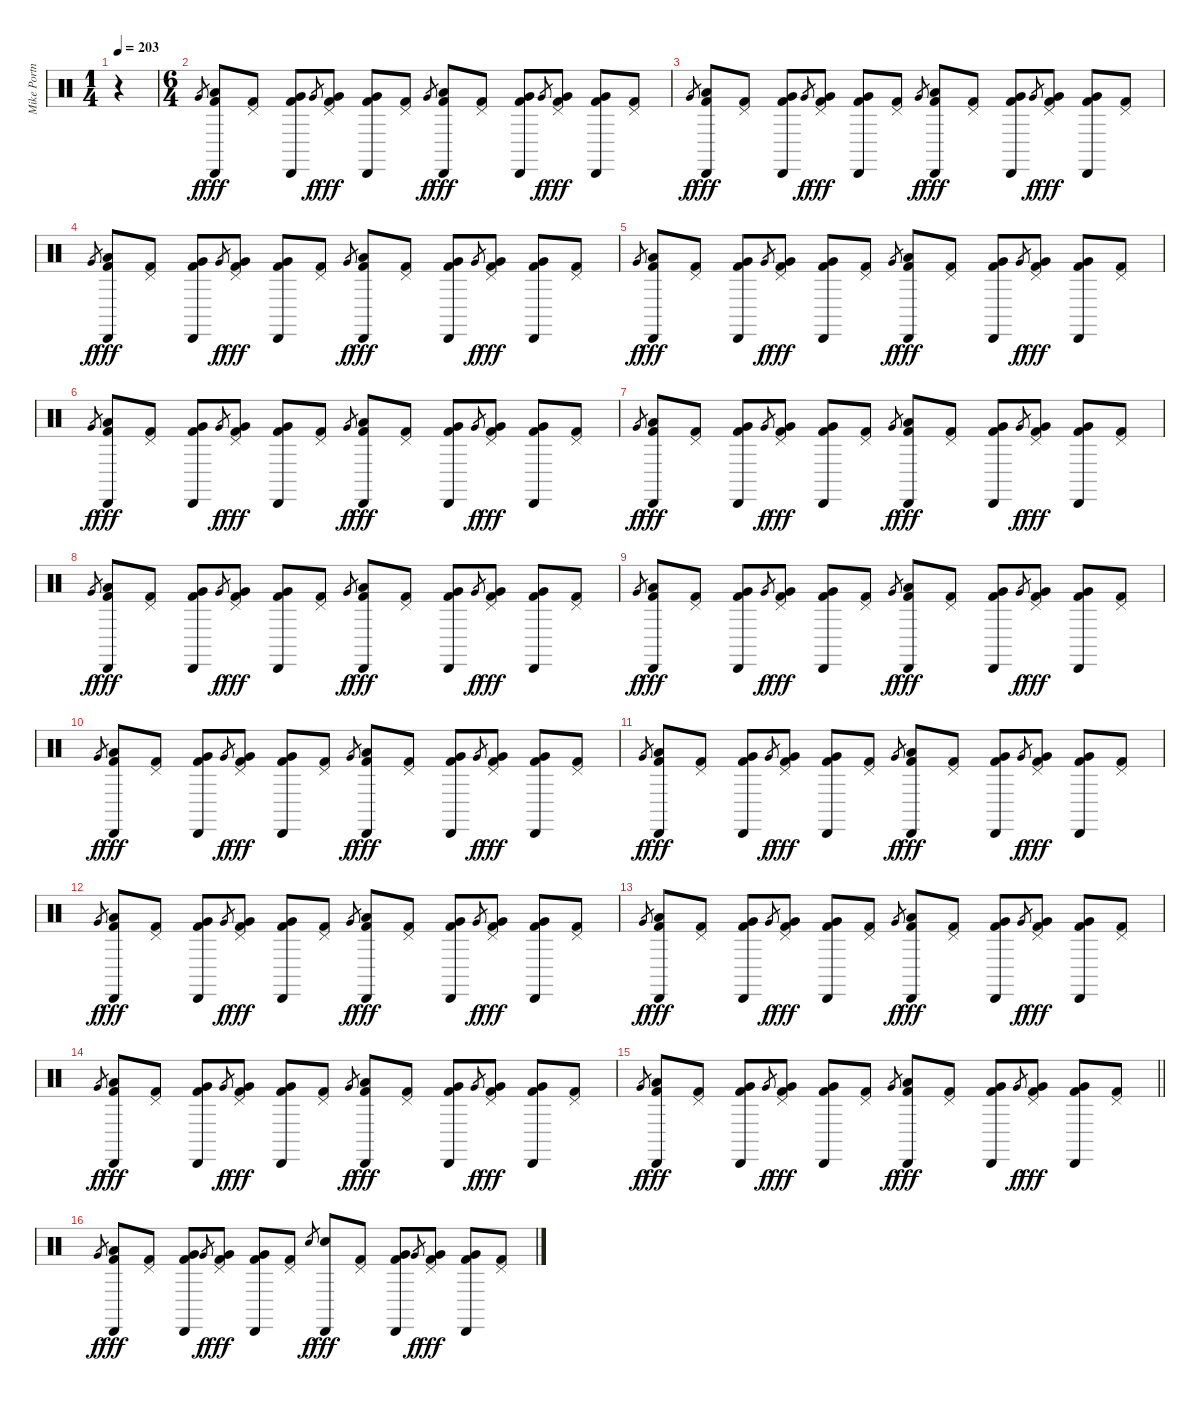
\track ("Mike Portnoy" "Mike Portn") {instrument percussion}
\staff {score}
\articulation defaults
\ts (1 4)
\tempo 203
\clef neutral
\ks c
r.4{dy f volume 0} |
\ts (6 4)
"Very Low Tom (hit)".8{gr} ("Cabasa (hit)" "Low Tom (hit)" "Kick (hit) 2").8{dy fff volume 2} ("Pedal Hi-Hat (hit)" "Kick (hit) 2").8 ("Cabasa (hit)" "Very Low Tom (hit)" "Kick (hit) 2").8 "Very Low Tom (hit)".8{gr dy f} ("Pedal Hi-Hat (hit)" "Very Low Tom (hit)" "Kick (hit) 2").8{dy fff} ("Cabasa (hit)" "Very Low Tom (hit)" "Kick (hit) 2").8 ("Pedal Hi-Hat (hit)" "Kick (hit) 2").8 "Very Low Tom (hit)".8{gr dy f} ("Cabasa (hit)" "Low Floor Tom (hit)" "Kick (hit) 2").8{dy fff} ("Pedal Hi-Hat (hit)" "Kick (hit) 2").8 ("Cabasa (hit)" "Very Low Tom (hit)" "Kick (hit) 2").8 "Very Low Tom (hit)".8{gr dy f} ("Pedal Hi-Hat (hit)" "Very Low Tom (hit)" "Kick (hit) 2").8{dy fff} ("Cabasa (hit)" "Very Low Tom (hit)" "Kick (hit) 2").8 ("Pedal Hi-Hat (hit)" "Kick (hit) 2").8 |
"Very Low Tom (hit)".8{gr dy f} ("Cabasa (hit)" "Low Tom (hit)" "Kick (hit) 2").8{dy fff} ("Pedal Hi-Hat (hit)" "Kick (hit) 2").8 ("Cabasa (hit)" "Very Low Tom (hit)" "Kick (hit) 2").8 "Very Low Tom (hit)".8{gr dy f} ("Pedal Hi-Hat (hit)" "Very Low Tom (hit)" "Kick (hit) 2").8{dy fff} ("Cabasa (hit)" "Very Low Tom (hit)" "Kick (hit) 2").8 ("Pedal Hi-Hat (hit)" "Kick (hit) 2").8 "Very Low Tom (hit)".8{gr dy f} ("Cabasa (hit)" "Low Floor Tom (hit)" "Kick (hit) 2").8{dy fff} ("Pedal Hi-Hat (hit)" "Kick (hit) 2").8 ("Cabasa (hit)" "Very Low Tom (hit)" "Kick (hit) 2").8 "Very Low Tom (hit)".8{gr dy f} ("Pedal Hi-Hat (hit)" "Very Low Tom (hit)" "Kick (hit) 2").8{dy fff} ("Cabasa (hit)" "Very Low Tom (hit)" "Kick (hit) 2").8 ("Pedal Hi-Hat (hit)" "Kick (hit) 2").8 |
"Very Low Tom (hit)".8{gr dy f} ("Cabasa (hit)" "Low Tom (hit)" "Kick (hit) 2").8{dy fff} ("Pedal Hi-Hat (hit)" "Kick (hit) 2").8 ("Cabasa (hit)" "Very Low Tom (hit)" "Kick (hit) 2").8 "Very Low Tom (hit)".8{gr dy f} ("Pedal Hi-Hat (hit)" "Very Low Tom (hit)" "Kick (hit) 2").8{dy fff} ("Cabasa (hit)" "Very Low Tom (hit)" "Kick (hit) 2").8 ("Pedal Hi-Hat (hit)" "Kick (hit) 2").8 "Very Low Tom (hit)".8{gr dy f} ("Cabasa (hit)" "Low Floor Tom (hit)" "Kick (hit) 2").8{dy fff} ("Pedal Hi-Hat (hit)" "Kick (hit) 2").8 ("Cabasa (hit)" "Very Low Tom (hit)" "Kick (hit) 2").8 "Very Low Tom (hit)".8{gr dy f} ("Pedal Hi-Hat (hit)" "Very Low Tom (hit)" "Kick (hit) 2").8{dy fff} ("Cabasa (hit)" "Very Low Tom (hit)" "Kick (hit) 2").8 ("Pedal Hi-Hat (hit)" "Kick (hit) 2").8 |
"Very Low Tom (hit)".8{gr dy f} ("Cabasa (hit)" "Low Tom (hit)" "Kick (hit) 2").8{dy fff} ("Pedal Hi-Hat (hit)" "Kick (hit) 2").8{volume 5} ("Cabasa (hit)" "Very Low Tom (hit)" "Kick (hit) 2").8 "Very Low Tom (hit)".8{gr dy f} ("Pedal Hi-Hat (hit)" "Very Low Tom (hit)" "Kick (hit) 2").8{dy fff} ("Cabasa (hit)" "Very Low Tom (hit)" "Kick (hit) 2").8 ("Pedal Hi-Hat (hit)" "Kick (hit) 2").8 "Very Low Tom (hit)".8{gr dy f} ("Cabasa (hit)" "Low Floor Tom (hit)" "Kick (hit) 2").8{dy fff} ("Pedal Hi-Hat (hit)" "Kick (hit) 2").8 ("Cabasa (hit)" "Very Low Tom (hit)" "Kick (hit) 2").8 "Very Low Tom (hit)".8{gr dy f} ("Pedal Hi-Hat (hit)" "Very Low Tom (hit)" "Kick (hit) 2").8{dy fff} ("Cabasa (hit)" "Very Low Tom (hit)" "Kick (hit) 2").8 ("Pedal Hi-Hat (hit)" "Kick (hit) 2").8 |
"Very Low Tom (hit)".8{gr dy f} ("Cabasa (hit)" "Low Tom (hit)" "Kick (hit) 2").8{dy fff} ("Pedal Hi-Hat (hit)" "Kick (hit) 2").8 ("Cabasa (hit)" "Very Low Tom (hit)" "Kick (hit) 2").8 "Very Low Tom (hit)".8{gr dy f} ("Pedal Hi-Hat (hit)" "Very Low Tom (hit)" "Kick (hit) 2").8{dy fff} ("Cabasa (hit)" "Very Low Tom (hit)" "Kick (hit) 2").8 ("Pedal Hi-Hat (hit)" "Kick (hit) 2").8 "Very Low Tom (hit)".8{gr dy f} ("Cabasa (hit)" "Low Floor Tom (hit)" "Kick (hit) 2").8{dy fff} ("Pedal Hi-Hat (hit)" "Kick (hit) 2").8 ("Cabasa (hit)" "Very Low Tom (hit)" "Kick (hit) 2").8 "Very Low Tom (hit)".8{gr dy f} ("Pedal Hi-Hat (hit)" "Very Low Tom (hit)" "Kick (hit) 2").8{dy fff} ("Cabasa (hit)" "Very Low Tom (hit)" "Kick (hit) 2").8 ("Pedal Hi-Hat (hit)" "Kick (hit) 2").8 |
"Very Low Tom (hit)".8{gr dy f} ("Cabasa (hit)" "Low Tom (hit)" "Kick (hit) 2").8{dy fff} ("Pedal Hi-Hat (hit)" "Kick (hit) 2").8 ("Cabasa (hit)" "Very Low Tom (hit)" "Kick (hit) 2").8 "Very Low Tom (hit)".8{gr dy f} ("Pedal Hi-Hat (hit)" "Very Low Tom (hit)" "Kick (hit) 2").8{dy fff} ("Cabasa (hit)" "Very Low Tom (hit)" "Kick (hit) 2").8 ("Pedal Hi-Hat (hit)" "Kick (hit) 2").8 "Very Low Tom (hit)".8{gr dy f} ("Cabasa (hit)" "Low Floor Tom (hit)" "Kick (hit) 2").8{dy fff} ("Pedal Hi-Hat (hit)" "Kick (hit) 2").8 ("Cabasa (hit)" "Very Low Tom (hit)" "Kick (hit) 2").8 "Very Low Tom (hit)".8{gr dy f} ("Pedal Hi-Hat (hit)" "Very Low Tom (hit)" "Kick (hit) 2").8{dy fff} ("Cabasa (hit)" "Very Low Tom (hit)" "Kick (hit) 2").8 ("Pedal Hi-Hat (hit)" "Kick (hit) 2").8 |
"Very Low Tom (hit)".8{gr dy f} ("Cabasa (hit)" "Low Tom (hit)" "Kick (hit) 2").8{dy fff} ("Pedal Hi-Hat (hit)" "Kick (hit) 2").8 ("Cabasa (hit)" "Very Low Tom (hit)" "Kick (hit) 2").8 "Very Low Tom (hit)".8{gr dy f} ("Pedal Hi-Hat (hit)" "Very Low Tom (hit)" "Kick (hit) 2").8{dy fff} ("Cabasa (hit)" "Very Low Tom (hit)" "Kick (hit) 2").8 ("Pedal Hi-Hat (hit)" "Kick (hit) 2").8{volume 12} "Very Low Tom (hit)".8{gr dy f} ("Cabasa (hit)" "Low Floor Tom (hit)" "Kick (hit) 2").8{dy fff} ("Pedal Hi-Hat (hit)" "Kick (hit) 2").8 ("Cabasa (hit)" "Very Low Tom (hit)" "Kick (hit) 2").8 "Very Low Tom (hit)".8{gr dy f} ("Pedal Hi-Hat (hit)" "Very Low Tom (hit)" "Kick (hit) 2").8{dy fff} ("Cabasa (hit)" "Very Low Tom (hit)" "Kick (hit) 2").8 ("Pedal Hi-Hat (hit)" "Kick (hit) 2").8 |
"Very Low Tom (hit)".8{gr dy f} ("Cabasa (hit)" "Low Tom (hit)" "Kick (hit) 2").8{dy fff} ("Pedal Hi-Hat (hit)" "Kick (hit) 2").8 ("Cabasa (hit)" "Very Low Tom (hit)" "Kick (hit) 2").8 "Very Low Tom (hit)".8{gr dy f} ("Pedal Hi-Hat (hit)" "Very Low Tom (hit)" "Kick (hit) 2").8{dy fff} ("Cabasa (hit)" "Very Low Tom (hit)" "Kick (hit) 2").8 ("Pedal Hi-Hat (hit)" "Kick (hit) 2").8 "Very Low Tom (hit)".8{gr dy f} ("Cabasa (hit)" "Low Floor Tom (hit)" "Kick (hit) 2").8{dy fff} ("Pedal Hi-Hat (hit)" "Kick (hit) 2").8 ("Cabasa (hit)" "Very Low Tom (hit)" "Kick (hit) 2").8 "Very Low Tom (hit)".8{gr dy f} ("Pedal Hi-Hat (hit)" "Very Low Tom (hit)" "Kick (hit) 2").8{dy fff} ("Cabasa (hit)" "Very Low Tom (hit)" "Kick (hit) 2").8 ("Pedal Hi-Hat (hit)" "Kick (hit) 2").8 |
"Very Low Tom (hit)".8{gr dy f} ("Cabasa (hit)" "Low Tom (hit)" "Kick (hit) 2").8{dy fff} ("Pedal Hi-Hat (hit)" "Kick (hit) 2").8 ("Cabasa (hit)" "Very Low Tom (hit)" "Kick (hit) 2").8 "Very Low Tom (hit)".8{gr dy f} ("Pedal Hi-Hat (hit)" "Very Low Tom (hit)" "Kick (hit) 2").8{dy fff} ("Cabasa (hit)" "Very Low Tom (hit)" "Kick (hit) 2").8 ("Pedal Hi-Hat (hit)" "Kick (hit) 2").8 "Very Low Tom (hit)".8{gr dy f} ("Cabasa (hit)" "Low Floor Tom (hit)" "Kick (hit) 2").8{dy fff} ("Pedal Hi-Hat (hit)" "Kick (hit) 2").8 ("Cabasa (hit)" "Very Low Tom (hit)" "Kick (hit) 2").8 "Very Low Tom (hit)".8{gr dy f} ("Pedal Hi-Hat (hit)" "Very Low Tom (hit)" "Kick (hit) 2").8{dy fff} ("Cabasa (hit)" "Very Low Tom (hit)" "Kick (hit) 2").8 ("Pedal Hi-Hat (hit)" "Kick (hit) 2").8 |
"Very Low Tom (hit)".8{gr dy f} ("Cabasa (hit)" "Low Tom (hit)" "Kick (hit) 2").8{dy fff} ("Pedal Hi-Hat (hit)" "Kick (hit) 2").8 ("Cabasa (hit)" "Very Low Tom (hit)" "Kick (hit) 2").8 "Very Low Tom (hit)".8{gr dy f} ("Pedal Hi-Hat (hit)" "Very Low Tom (hit)" "Kick (hit) 2").8{dy fff} ("Cabasa (hit)" "Very Low Tom (hit)" "Kick (hit) 2").8 ("Pedal Hi-Hat (hit)" "Kick (hit) 2").8 "Very Low Tom (hit)".8{gr dy f} ("Cabasa (hit)" "Low Floor Tom (hit)" "Kick (hit) 2").8{dy fff} ("Pedal Hi-Hat (hit)" "Kick (hit) 2").8 ("Cabasa (hit)" "Very Low Tom (hit)" "Kick (hit) 2").8 "Very Low Tom (hit)".8{gr dy f} ("Pedal Hi-Hat (hit)" "Very Low Tom (hit)" "Kick (hit) 2").8{dy fff} ("Cabasa (hit)" "Very Low Tom (hit)" "Kick (hit) 2").8 ("Pedal Hi-Hat (hit)" "Kick (hit) 2").8{volume 16} |
"Very Low Tom (hit)".8{gr dy f} ("Cabasa (hit)" "Low Tom (hit)" "Kick (hit) 2").8{dy fff} ("Pedal Hi-Hat (hit)" "Kick (hit) 2").8 ("Cabasa (hit)" "Very Low Tom (hit)" "Kick (hit) 2").8 "Very Low Tom (hit)".8{gr dy f} ("Pedal Hi-Hat (hit)" "Very Low Tom (hit)" "Kick (hit) 2").8{dy fff} ("Cabasa (hit)" "Very Low Tom (hit)" "Kick (hit) 2").8 ("Pedal Hi-Hat (hit)" "Kick (hit) 2").8 "Very Low Tom (hit)".8{gr dy f} ("Cabasa (hit)" "Low Floor Tom (hit)" "Kick (hit) 2").8{dy fff} ("Pedal Hi-Hat (hit)" "Kick (hit) 2").8 ("Cabasa (hit)" "Very Low Tom (hit)" "Kick (hit) 2").8 "Very Low Tom (hit)".8{gr dy f} ("Pedal Hi-Hat (hit)" "Very Low Tom (hit)" "Kick (hit) 2").8{dy fff} ("Cabasa (hit)" "Very Low Tom (hit)" "Kick (hit) 2").8 ("Pedal Hi-Hat (hit)" "Kick (hit) 2").8 |
"Very Low Tom (hit)".8{gr dy f} ("Cabasa (hit)" "Low Tom (hit)" "Kick (hit) 2").8{dy fff} ("Pedal Hi-Hat (hit)" "Kick (hit) 2").8 ("Cabasa (hit)" "Very Low Tom (hit)" "Kick (hit) 2").8 "Very Low Tom (hit)".8{gr dy f} ("Pedal Hi-Hat (hit)" "Very Low Tom (hit)" "Kick (hit) 2").8{dy fff} ("Cabasa (hit)" "Very Low Tom (hit)" "Kick (hit) 2").8 ("Pedal Hi-Hat (hit)" "Kick (hit) 2").8 "Very Low Tom (hit)".8{gr dy f} ("Cabasa (hit)" "Low Floor Tom (hit)" "Kick (hit) 2").8{dy fff} ("Pedal Hi-Hat (hit)" "Kick (hit) 2").8 ("Cabasa (hit)" "Very Low Tom (hit)" "Kick (hit) 2").8 "Very Low Tom (hit)".8{gr dy f} ("Pedal Hi-Hat (hit)" "Very Low Tom (hit)" "Kick (hit) 2").8{dy fff} ("Cabasa (hit)" "Very Low Tom (hit)" "Kick (hit) 2").8 ("Pedal Hi-Hat (hit)" "Kick (hit) 2").8 |
"Very Low Tom (hit)".8{gr dy f} ("Cabasa (hit)" "Low Tom (hit)" "Kick (hit) 2").8{dy fff} ("Pedal Hi-Hat (hit)" "Kick (hit) 2").8 ("Cabasa (hit)" "Very Low Tom (hit)" "Kick (hit) 2").8 "Very Low Tom (hit)".8{gr dy f} ("Pedal Hi-Hat (hit)" "Very Low Tom (hit)" "Kick (hit) 2").8{dy fff} ("Cabasa (hit)" "Very Low Tom (hit)" "Kick (hit) 2").8 ("Pedal Hi-Hat (hit)" "Kick (hit) 2").8 "Very Low Tom (hit)".8{gr dy f} ("Cabasa (hit)" "Low Floor Tom (hit)" "Kick (hit) 2").8{dy fff} ("Pedal Hi-Hat (hit)" "Kick (hit) 2").8 ("Cabasa (hit)" "Very Low Tom (hit)" "Kick (hit) 2").8 "Very Low Tom (hit)".8{gr dy f} ("Pedal Hi-Hat (hit)" "Very Low Tom (hit)" "Kick (hit) 2").8{dy fff} ("Cabasa (hit)" "Very Low Tom (hit)" "Kick (hit) 2").8 ("Pedal Hi-Hat (hit)" "Kick (hit) 2").8 |
\barLineRight lightlight "Very Low Tom (hit)".8{gr dy f}
("Cabasa (hit)" "Low Tom (hit)" "Kick (hit) 2").8{dy fff} ("Pedal Hi-Hat (hit)" "Kick (hit) 2").8 ("Cabasa (hit)" "Very Low Tom (hit)" "Kick (hit) 2").8 "Very Low Tom (hit)".8{gr dy f} ("Pedal Hi-Hat (hit)" "Very Low Tom (hit)" "Kick (hit) 2").8{dy fff} ("Cabasa (hit)" "Very Low Tom (hit)" "Kick (hit) 2").8 ("Pedal Hi-Hat (hit)" "Kick (hit) 2").8 "Very Low Tom (hit)".8{gr dy f} ("Cabasa (hit)" "Low Floor Tom (hit)" "Kick (hit) 2").8{dy fff} ("Pedal Hi-Hat (hit)" "Kick (hit) 2").8 ("Cabasa (hit)" "Very Low Tom (hit)" "Kick (hit) 2").8 "Very Low Tom (hit)".8{gr dy f} ("Pedal Hi-Hat (hit)" "Very Low Tom (hit)" "Kick (hit) 2").8{dy fff} ("Cabasa (hit)" "Very Low Tom (hit)" "Kick (hit) 2").8 ("Pedal Hi-Hat (hit)" "Kick (hit) 2").8 |
"Very Low Tom (hit)".8{gr dy f} ("Cabasa (hit)" "Low Tom (hit)" "Kick (hit) 2").8{dy fff} ("Pedal Hi-Hat (hit)" "Kick (hit) 2").8 ("Cabasa (hit)" "Very Low Tom (hit)" "Kick (hit) 2").8 "Very Low Tom (hit)".8{gr dy f} ("Pedal Hi-Hat (hit)" "Very Low Tom (hit)" "Kick (hit) 2").8{dy fff} ("Cabasa (hit)" "Very Low Tom (hit)" "Kick (hit) 2").8 ("Pedal Hi-Hat (hit)" "Kick (hit) 2").8 "Electric Snare (hit)".8{gr dy f} ("Cabasa (hit)" "Electric Snare (hit)").8{dy fff} ("Pedal Hi-Hat (hit)" "Kick (hit) 2").8 ("Cabasa (hit)" "Very Low Tom (hit)" "Kick (hit) 2").8 "Very Low Tom (hit)".8{gr dy f} ("Pedal Hi-Hat (hit)" "Very Low Tom (hit)" "Kick (hit) 2").8{dy fff} ("Cabasa (hit)" "Very Low Tom (hit)" "Kick (hit) 2").8 ("Pedal Hi-Hat (hit)" "Kick (hit) 2").8
